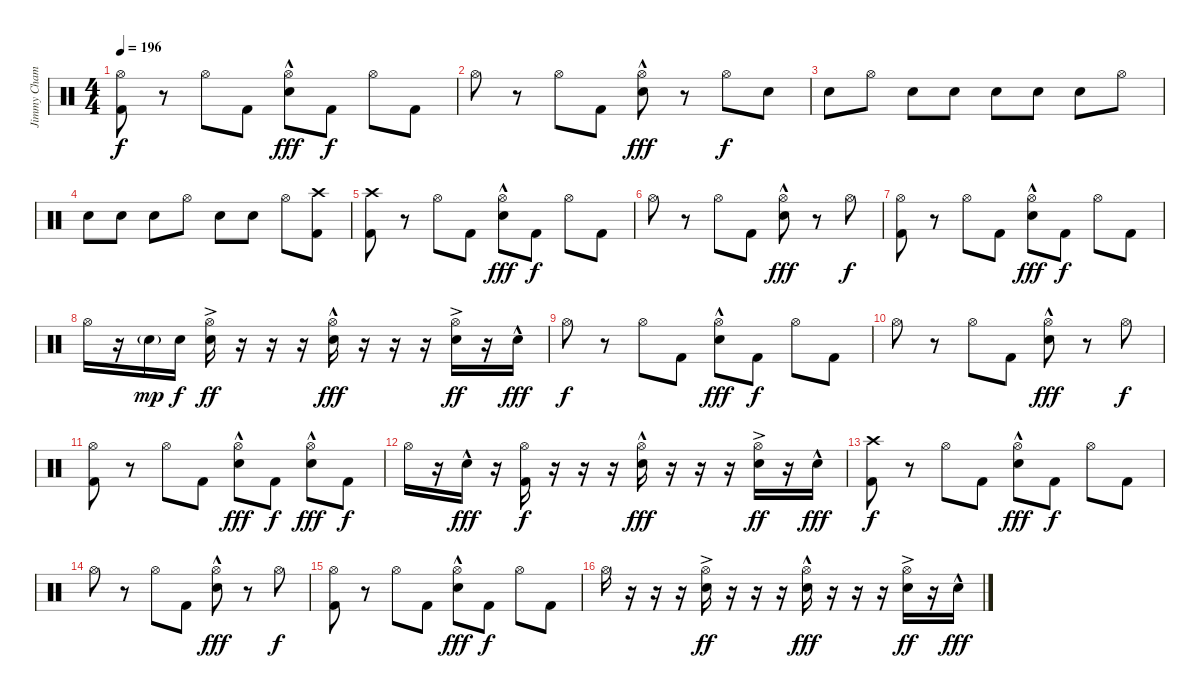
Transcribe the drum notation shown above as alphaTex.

\track ("Jimmy Chamberlin" "Jimmy Cham") {instrument percussion}
\staff {score}
\articulation defaults
\ts (4 4)
\tempo 196
\clef neutral
\ks c
("Hi-Hat (open)" "Kick (hit) 2").8{dy f} r.8 "Hi-Hat (open)".8 "Kick (hit) 2".8 ("Hi-Hat (open)" "Electric Snare (hit)"{hac}).8{dy fff} "Kick (hit) 2".8{dy f} "Hi-Hat (open)".8 "Kick (hit) 2".8 |
"Hi-Hat (open)".8 r.8 "Hi-Hat (open)".8 "Kick (hit) 2".8 ("Hi-Hat (open)" "Electric Snare (hit)"{hac}).8{dy fff} r.8 "Hi-Hat (open)".8{dy f} "Electric Snare (hit)".8 |
"Electric Snare (hit)".8 "Hi-Hat (open)".8 "Electric Snare (hit)".8 "Electric Snare (hit)".8 "Electric Snare (hit)".8 "Electric Snare (hit)".8 "Electric Snare (hit)".8 "Hi-Hat (open)".8 |
"Electric Snare (hit)".8 "Electric Snare (hit)".8 "Electric Snare (hit)".8 "Hi-Hat (open)".8 "Electric Snare (hit)".8 "Electric Snare (hit)".8 "Hi-Hat (open)".8 ("Crash high (hit)" "Kick (hit) 2").8 |
("Crash high (hit)" "Kick (hit) 2").8 r.8 "Hi-Hat (open)".8 "Kick (hit) 2".8 ("Hi-Hat (open)" "Electric Snare (hit)"{hac}).8{dy fff} "Kick (hit) 2".8{dy f} "Hi-Hat (open)".8 "Kick (hit) 2".8 |
"Hi-Hat (open)".8 r.8 "Hi-Hat (open)".8 "Kick (hit) 2".8 ("Hi-Hat (open)" "Electric Snare (hit)"{hac}).8{dy fff} r.8 "Hi-Hat (open)".8{dy f} |
("Hi-Hat (open)" "Kick (hit) 2").8 r.8 "Hi-Hat (open)".8 "Kick (hit) 2".8 ("Hi-Hat (open)" "Electric Snare (hit)"{hac}).8{dy fff} "Kick (hit) 2".8{dy f} "Hi-Hat (open)".8 "Kick (hit) 2".8 |
"Hi-Hat (open)".16 r.16 "Electric Snare (hit)"{g}.16{dy mp} "Electric Snare (hit)".16{dy f} ("Hi-Hat (open)" "Electric Snare (hit)"{ac}).16{dy ff} r.16 r.16 r.16 ("Hi-Hat (open)" "Electric Snare (hit)"{hac}).16{dy fff} r.16 r.16 r.16 ("Hi-Hat (open)" "Electric Snare (hit)"{ac}).16{dy ff} r.16 "Electric Snare (hit)"{hac}.16{dy fff} |
"Hi-Hat (open)".8{dy f} r.8 "Hi-Hat (open)".8 "Kick (hit) 2".8 ("Hi-Hat (open)" "Electric Snare (hit)"{hac}).8{dy fff} "Kick (hit) 2".8{dy f} "Hi-Hat (open)".8 "Kick (hit) 2".8 |
"Hi-Hat (open)".8 r.8 "Hi-Hat (open)".8 "Kick (hit) 2".8 ("Hi-Hat (open)" "Electric Snare (hit)"{hac}).8{dy fff} r.8 "Hi-Hat (open)".8{dy f} |
("Hi-Hat (open)" "Kick (hit) 2").8 r.8 "Hi-Hat (open)".8 "Kick (hit) 2".8 ("Hi-Hat (open)" "Electric Snare (hit)"{hac}).8{dy fff} "Kick (hit) 2".8{dy f} ("Hi-Hat (open)" "Electric Snare (hit)"{hac}).8{dy fff} "Kick (hit) 2".8{dy f} |
"Hi-Hat (open)".16 r.16 "Electric Snare (hit)"{hac}.16{dy fff} r.16 ("Hi-Hat (open)" "Kick (hit) 2").16{dy f} r.16 r.16 r.16 ("Hi-Hat (open)" "Electric Snare (hit)"{hac}).16{dy fff} r.16 r.16 r.16 ("Hi-Hat (open)" "Electric Snare (hit)"{ac}).16{dy ff} r.16 "Electric Snare (hit)"{hac}.16{dy fff} |
("Crash high (hit)" "Kick (hit) 2").8{dy f} r.8 "Hi-Hat (open)".8 "Kick (hit) 2".8 ("Hi-Hat (open)" "Electric Snare (hit)"{hac}).8{dy fff} "Kick (hit) 2".8{dy f} "Hi-Hat (open)".8 "Kick (hit) 2".8 |
"Hi-Hat (open)".8 r.8 "Hi-Hat (open)".8 "Kick (hit) 2".8 ("Hi-Hat (open)" "Electric Snare (hit)"{hac}).8{dy fff} r.8 "Hi-Hat (open)".8{dy f} |
("Hi-Hat (open)" "Kick (hit) 2").8 r.8 "Hi-Hat (open)".8 "Kick (hit) 2".8 ("Hi-Hat (open)" "Electric Snare (hit)"{hac}).8{dy fff} "Kick (hit) 2".8{dy f} "Hi-Hat (open)".8 "Kick (hit) 2".8 |
"Hi-Hat (open)".16 r.16 r.16 r.16 ("Hi-Hat (open)" "Electric Snare (hit)"{ac}).16{dy ff} r.16 r.16 r.16 ("Hi-Hat (open)" "Electric Snare (hit)"{hac}).16{dy fff} r.16 r.16 r.16 ("Hi-Hat (open)" "Electric Snare (hit)"{ac}).16{dy ff} r.16 "Electric Snare (hit)"{hac}.16{dy fff}
